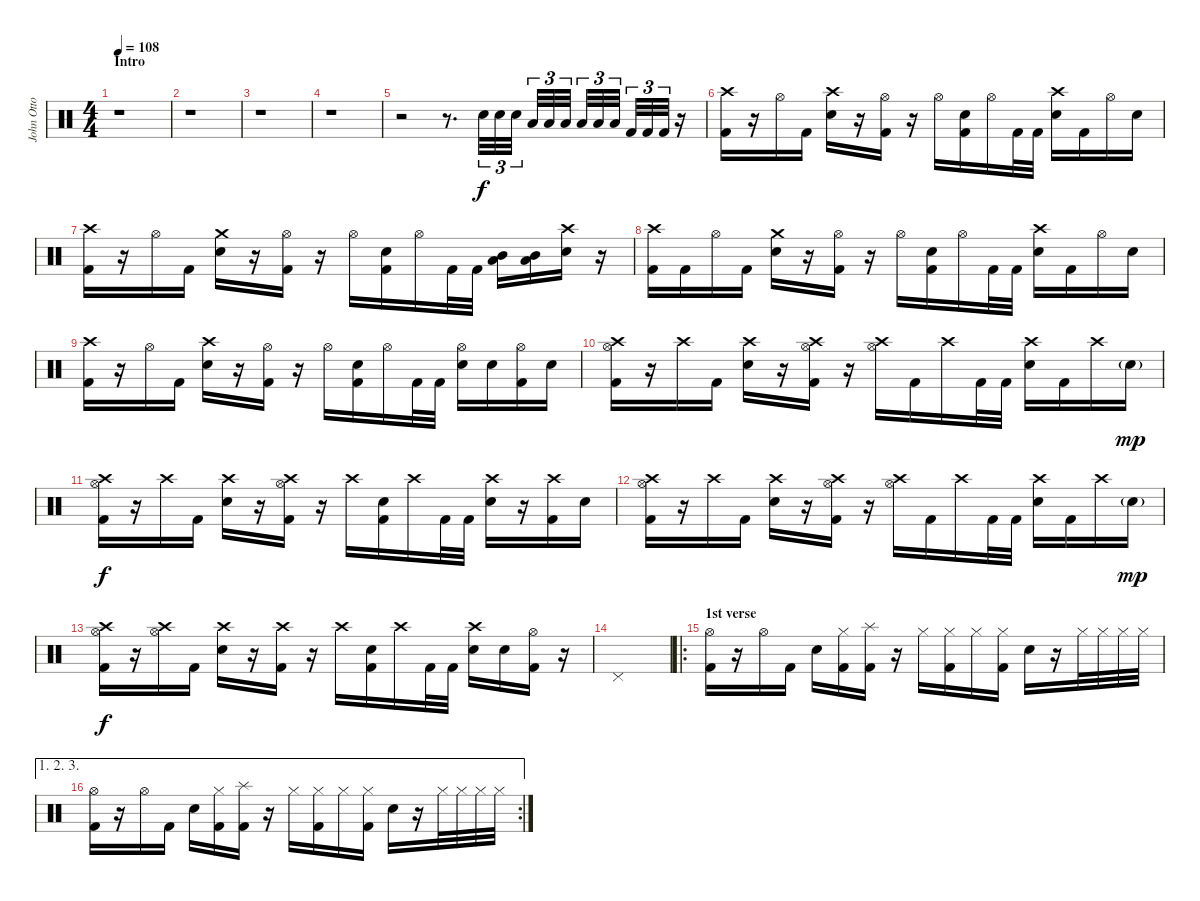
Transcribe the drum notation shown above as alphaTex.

\track ("John Otto" "John Otto") {instrument percussion}
\staff {score}
\articulation defaults
\ts (4 4)
\section ("" "Intro")
\tempo 108
\clef neutral
\ks c
r.1{dy f} |
r.1 |
r.1 |
r.1 |
r.2 r.8{d} "Snare (hit) 2".32{tu (3 2)} "Snare (hit) 2".32{tu (3 2)} "Snare (hit) 2".32{tu (3 2)} "Low Floor Tom (hit)".32{tu (3 2)} "Low Floor Tom (hit)".32{tu (3 2)} "Low Floor Tom (hit)".32{tu (3 2)} "Low Tom (hit)".32{tu (3 2)} "Low Tom (hit)".32{tu (3 2)} "Low Tom (hit)".32{tu (3 2)} "Kick (hit) 2".32{tu (3 2)} "Kick (hit) 2".32{tu (3 2)} "Kick (hit) 2".32{tu (3 2)} r.16 |
("Crash high (hit)" "Kick (hit) 2").16 r.16 "Hi-Hat (open)".16 "Kick (hit) 2".16 ("Crash high (hit)" "Snare (hit) 2").16 r.16 ("Hi-Hat (open)" "Kick (hit) 2").16 r.16 "Hi-Hat (open)".16 ("Snare (hit) 2" "Kick (hit) 2").16 "Hi-Hat (open)".16 "Kick (hit) 2".32 "Kick (hit) 2".32 ("Crash high (hit)" "Snare (hit) 2").16 "Kick (hit) 2".16 "Hi-Hat (open)".16 "Snare (hit) 2".16 |
("Crash high (hit)" "Kick (hit) 2").16 r.16 "Hi-Hat (open)".16 "Kick (hit) 2".16 ("Crash medium (hit)" "Snare (hit) 2").16 r.16 ("Hi-Hat (open)" "Kick (hit) 2").16 r.16 "Hi-Hat (open)".16 ("Snare (hit) 2" "Kick (hit) 2").16 "Hi-Hat (open)".16 "Kick (hit) 2".32 "Kick (hit) 2".32 ("Low Tom (hit)" "Mid Tom (hit)").16 ("Low Tom (hit)" "Mid Tom (hit)").16 ("Crash high (hit)" "Snare (hit) 2").16 r.16 |
("Crash high (hit)" "Kick (hit) 2").16 "Kick (hit) 2".16 "Hi-Hat (open)".16 "Kick (hit) 2".16 ("Crash medium (hit)" "Snare (hit) 2").16 r.16 ("Hi-Hat (open)" "Kick (hit) 2").16 r.16 "Hi-Hat (open)".16 ("Snare (hit) 2" "Kick (hit) 2").16 "Hi-Hat (open)".16 "Kick (hit) 2".32 "Kick (hit) 2".32 ("Crash high (hit)" "Snare (hit) 2").16 "Kick (hit) 2".16 "Hi-Hat (open)".16 "Snare (hit) 2".16 |
("Crash high (hit)" "Kick (hit) 2").16 r.16 "Hi-Hat (open)".16 "Kick (hit) 2".16 ("Crash high (hit)" "Snare (hit) 2").16 r.16 ("Hi-Hat (open)" "Kick (hit) 2").16 r.16 "Hi-Hat (open)".16 ("Snare (hit) 2" "Kick (hit) 2").16 "Hi-Hat (open)".16 "Kick (hit) 2".32 "Kick (hit) 2".32 ("Hi-Hat (open)" "Snare (hit) 2").16 "Snare (hit) 2".16 ("Hi-Hat (open)" "Kick (hit) 2").16 "Snare (hit) 2".16 |
("Crash high (hit)" "Hi-Hat (open)" "Kick (hit) 2").16 r.16 "Crash high (hit)".16 "Kick (hit) 2".16 ("Crash high (hit)" "Snare (hit) 2").16 r.16 ("Crash high (hit)" "Hi-Hat (open)" "Kick (hit) 2").16 r.16 ("Crash high (hit)" "Hi-Hat (open)").16 "Kick (hit) 2".16 "Crash high (hit)".16 "Kick (hit) 2".32 "Kick (hit) 2".32 ("Crash high (hit)" "Snare (hit) 2").16 "Kick (hit) 2".16 "Crash high (hit)".16 "Snare (hit) 2"{g}.16{dy mp} |
("Crash high (hit)" "Hi-Hat (open)" "Kick (hit) 2").16{dy f} r.16 "Crash high (hit)".16 "Kick (hit) 2".16 ("Crash high (hit)" "Snare (hit) 2").16 r.16 ("Crash high (hit)" "Hi-Hat (open)" "Kick (hit) 2").16 r.16 "Crash high (hit)".16 ("Snare (hit) 2" "Kick (hit) 2").16 "Crash high (hit)".16 "Kick (hit) 2".32 "Kick (hit) 2".32 ("Crash high (hit)" "Snare (hit) 2").16 r.16 ("Crash high (hit)" "Kick (hit) 2").16 "Snare (hit) 2".16 |
("Crash high (hit)" "Hi-Hat (open)" "Kick (hit) 2").16 r.16 "Crash high (hit)".16 "Kick (hit) 2".16 ("Crash high (hit)" "Snare (hit) 2").16 r.16 ("Crash high (hit)" "Hi-Hat (open)" "Kick (hit) 2").16 r.16 ("Crash high (hit)" "Hi-Hat (open)").16 "Kick (hit) 2".16 "Crash high (hit)".16 "Kick (hit) 2".32 "Kick (hit) 2".32 ("Crash high (hit)" "Snare (hit) 2").16 "Kick (hit) 2".16 "Crash high (hit)".16 "Snare (hit) 2"{g}.16{dy mp} |
("Crash high (hit)" "Hi-Hat (open)" "Kick (hit) 2").16{dy f} r.16 ("Crash high (hit)" "Hi-Hat (open)").16 "Kick (hit) 2".16 ("Crash high (hit)" "Snare (hit) 2").16 r.16 ("Crash high (hit)" "Kick (hit) 2").16 r.16 "Crash high (hit)".16 ("Snare (hit) 2" "Kick (hit) 2").16 "Crash high (hit)".16 "Kick (hit) 2".32 "Kick (hit) 2".32 ("Crash high (hit)" "Snare (hit) 2").16 "Snare (hit) 2".16 ("Hi-Hat (open)" "Kick (hit) 2").16 r.16 |
"Pedal Hi-Hat (hit)".1 |
\ro
\section ("" "1st verse")
("Hi-Hat (open)" "Kick (hit) 2").16 r.16 "Hi-Hat (open)".16 "Kick (hit) 2".16 "Snare (hit) 2".16 ("Hi-Hat (closed)" "Kick (hit) 2").16 ("Splash (hit)" "Kick (hit) 2").16 r.16 "Hi-Hat (closed)".16 ("Hi-Hat (closed)" "Kick (hit) 2").16 "Hi-Hat (closed)".16 ("Hi-Hat (closed)" "Kick (hit) 2").16 "Snare (hit) 2".16 r.16 "Hi-Hat (closed)".32 "Hi-Hat (closed)".32 "Hi-Hat (closed)".32 "Hi-Hat (closed)".32 |
\ae (1 2 3)
\rc 2
("Hi-Hat (open)" "Kick (hit) 2").16 r.16 "Hi-Hat (open)".16 "Kick (hit) 2".16 "Snare (hit) 2".16 ("Hi-Hat (closed)" "Kick (hit) 2").16 ("Splash (hit)" "Kick (hit) 2").16 r.16 "Hi-Hat (closed)".16 ("Hi-Hat (closed)" "Kick (hit) 2").16 "Hi-Hat (closed)".16 ("Hi-Hat (closed)" "Kick (hit) 2").16 "Snare (hit) 2".16 r.16 "Hi-Hat (closed)".32 "Hi-Hat (closed)".32 "Hi-Hat (closed)".32 "Hi-Hat (closed)".32
